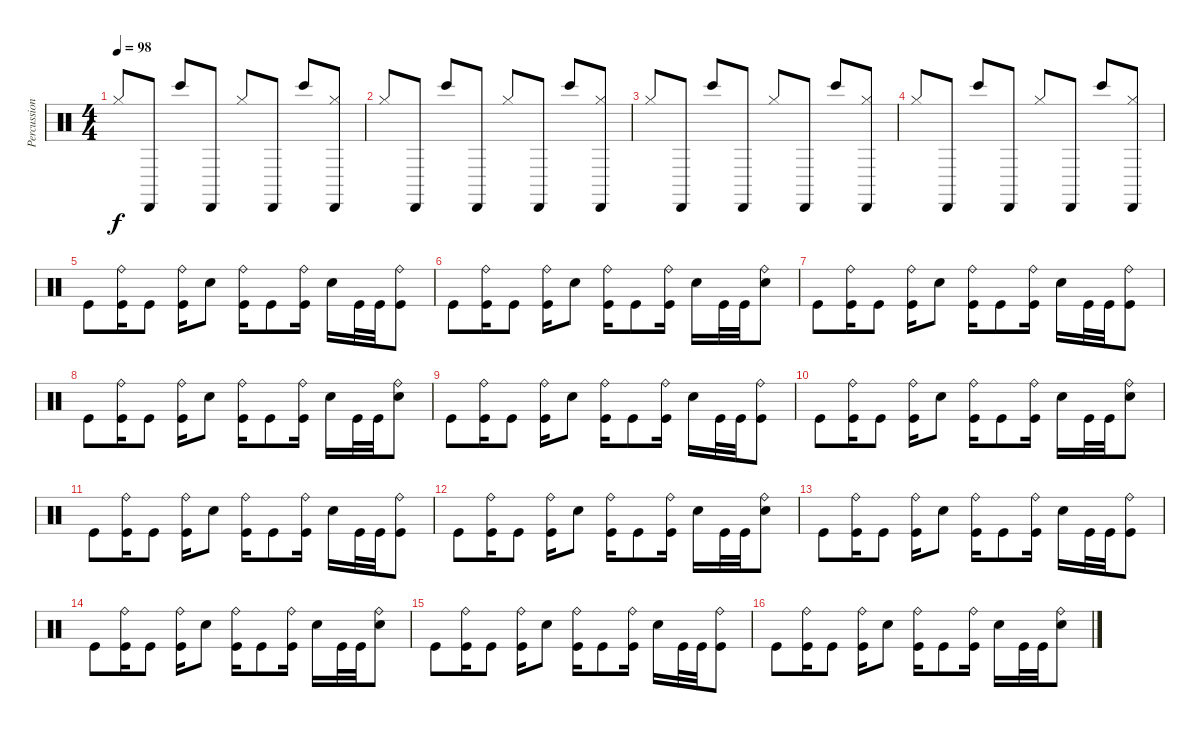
\track ("Percussions" "Percussion") {instrument percussion}
\staff {score}
\articulation defaults
\ts (4 4)
\tempo 98
\clef neutral
\ks c "Hi-Hat (closed)".8{dy f volume 0} "Cabasa (hit)".8{volume 12} "Bongo High (hit)".8 "Cabasa (hit)".8 "Hi-Hat (closed)".8 "Cabasa (hit)".8 "Bongo High (hit)".8
("Cabasa (hit)" "Hi-Hat (closed)").8 |
"Hi-Hat (closed)".8 "Cabasa (hit)".8 "Bongo High (hit)".8 "Cabasa (hit)".8 "Hi-Hat (closed)".8 "Cabasa (hit)".8 "Bongo High (hit)".8 ("Cabasa (hit)" "Hi-Hat (closed)").8 |
"Hi-Hat (closed)".8 "Cabasa (hit)".8 "Bongo High (hit)".8 "Cabasa (hit)".8 "Hi-Hat (closed)".8 "Cabasa (hit)".8 "Bongo High (hit)".8 ("Cabasa (hit)" "Hi-Hat (closed)").8 |
"Hi-Hat (closed)".8 "Cabasa (hit)".8 "Bongo High (hit)".8 "Cabasa (hit)".8 "Hi-Hat (closed)".8 "Cabasa (hit)".8 "Bongo High (hit)".8 ("Cabasa (hit)" "Hi-Hat (closed)").8 |
"Kick (hit)".8 ("Ride (bell)" "Kick (hit)").16 "Kick (hit)".8 ("Ride (bell)" "Kick (hit)").16 "Snare (hit) 2".8 ("Ride (bell)" "Kick (hit)").16 "Kick (hit)".8 ("Ride (bell)" "Kick (hit)").16 "Snare (hit) 2".16 "Kick (hit)".32 "Kick (hit)".32 ("Ride (bell)" "Kick (hit)").8 |
"Kick (hit)".8 ("Ride (bell)" "Kick (hit)").16 "Kick (hit)".8 ("Ride (bell)" "Kick (hit)").16 "Snare (hit) 2".8 ("Ride (bell)" "Kick (hit)").16 "Kick (hit)".8 ("Ride (bell)" "Kick (hit)").16 "Snare (hit) 2".16 "Kick (hit)".32 "Kick (hit)".32 ("Ride (bell)" "Snare (hit) 2").8 |
"Kick (hit)".8 ("Ride (bell)" "Kick (hit)").16 "Kick (hit)".8 ("Ride (bell)" "Kick (hit)").16 "Snare (hit) 2".8 ("Ride (bell)" "Kick (hit)").16 "Kick (hit)".8 ("Ride (bell)" "Kick (hit)").16 "Snare (hit) 2".16 "Kick (hit)".32 "Kick (hit)".32 ("Ride (bell)" "Kick (hit)").8 |
"Kick (hit)".8 ("Ride (bell)" "Kick (hit)").16 "Kick (hit)".8 ("Ride (bell)" "Kick (hit)").16 "Snare (hit) 2".8 ("Ride (bell)" "Kick (hit)").16 "Kick (hit)".8 ("Ride (bell)" "Kick (hit)").16 "Snare (hit) 2".16 "Kick (hit)".32 "Kick (hit)".32 ("Ride (bell)" "Snare (hit) 2").8 |
"Kick (hit)".8 ("Ride (bell)" "Kick (hit)").16 "Kick (hit)".8 ("Ride (bell)" "Kick (hit)").16 "Snare (hit) 2".8 ("Ride (bell)" "Kick (hit)").16 "Kick (hit)".8 ("Ride (bell)" "Kick (hit)").16 "Snare (hit) 2".16 "Kick (hit)".32 "Kick (hit)".32 ("Ride (bell)" "Kick (hit)").8 |
"Kick (hit)".8 ("Ride (bell)" "Kick (hit)").16 "Kick (hit)".8 ("Ride (bell)" "Kick (hit)").16 "Snare (hit) 2".8 ("Ride (bell)" "Kick (hit)").16 "Kick (hit)".8 ("Ride (bell)" "Kick (hit)").16 "Snare (hit) 2".16 "Kick (hit)".32 "Kick (hit)".32 ("Ride (bell)" "Snare (hit) 2").8 |
"Kick (hit)".8 ("Ride (bell)" "Kick (hit)").16 "Kick (hit)".8 ("Ride (bell)" "Kick (hit)").16 "Snare (hit) 2".8 ("Ride (bell)" "Kick (hit)").16 "Kick (hit)".8 ("Ride (bell)" "Kick (hit)").16 "Snare (hit) 2".16 "Kick (hit)".32 "Kick (hit)".32 ("Ride (bell)" "Kick (hit)").8 |
"Kick (hit)".8 ("Ride (bell)" "Kick (hit)").16 "Kick (hit)".8 ("Ride (bell)" "Kick (hit)").16 "Snare (hit) 2".8 ("Ride (bell)" "Kick (hit)").16 "Kick (hit)".8 ("Ride (bell)" "Kick (hit)").16 "Snare (hit) 2".16 "Kick (hit)".32 "Kick (hit)".32 ("Ride (bell)" "Snare (hit) 2").8 |
"Kick (hit)".8 ("Ride (bell)" "Kick (hit)").16 "Kick (hit)".8 ("Ride (bell)" "Kick (hit)").16 "Snare (hit) 2".8 ("Ride (bell)" "Kick (hit)").16 "Kick (hit)".8 ("Ride (bell)" "Kick (hit)").16 "Snare (hit) 2".16 "Kick (hit)".32 "Kick (hit)".32 ("Ride (bell)" "Kick (hit)").8 |
"Kick (hit)".8 ("Ride (bell)" "Kick (hit)").16 "Kick (hit)".8 ("Ride (bell)" "Kick (hit)").16 "Snare (hit) 2".8 ("Ride (bell)" "Kick (hit)").16 "Kick (hit)".8 ("Ride (bell)" "Kick (hit)").16 "Snare (hit) 2".16 "Kick (hit)".32 "Kick (hit)".32 ("Ride (bell)" "Snare (hit) 2").8 |
"Kick (hit)".8 ("Ride (bell)" "Kick (hit)").16 "Kick (hit)".8 ("Ride (bell)" "Kick (hit)").16 "Snare (hit) 2".8 ("Ride (bell)" "Kick (hit)").16 "Kick (hit)".8 ("Ride (bell)" "Kick (hit)").16 "Snare (hit) 2".16 "Kick (hit)".32 "Kick (hit)".32 ("Ride (bell)" "Kick (hit)").8 |
"Kick (hit)".8 ("Ride (bell)" "Kick (hit)").16 "Kick (hit)".8 ("Ride (bell)" "Kick (hit)").16 "Snare (hit) 2".8 ("Ride (bell)" "Kick (hit)").16 "Kick (hit)".8 ("Ride (bell)" "Kick (hit)").16 "Snare (hit) 2".16 "Kick (hit)".32 "Kick (hit)".32 ("Ride (bell)" "Snare (hit) 2").8
